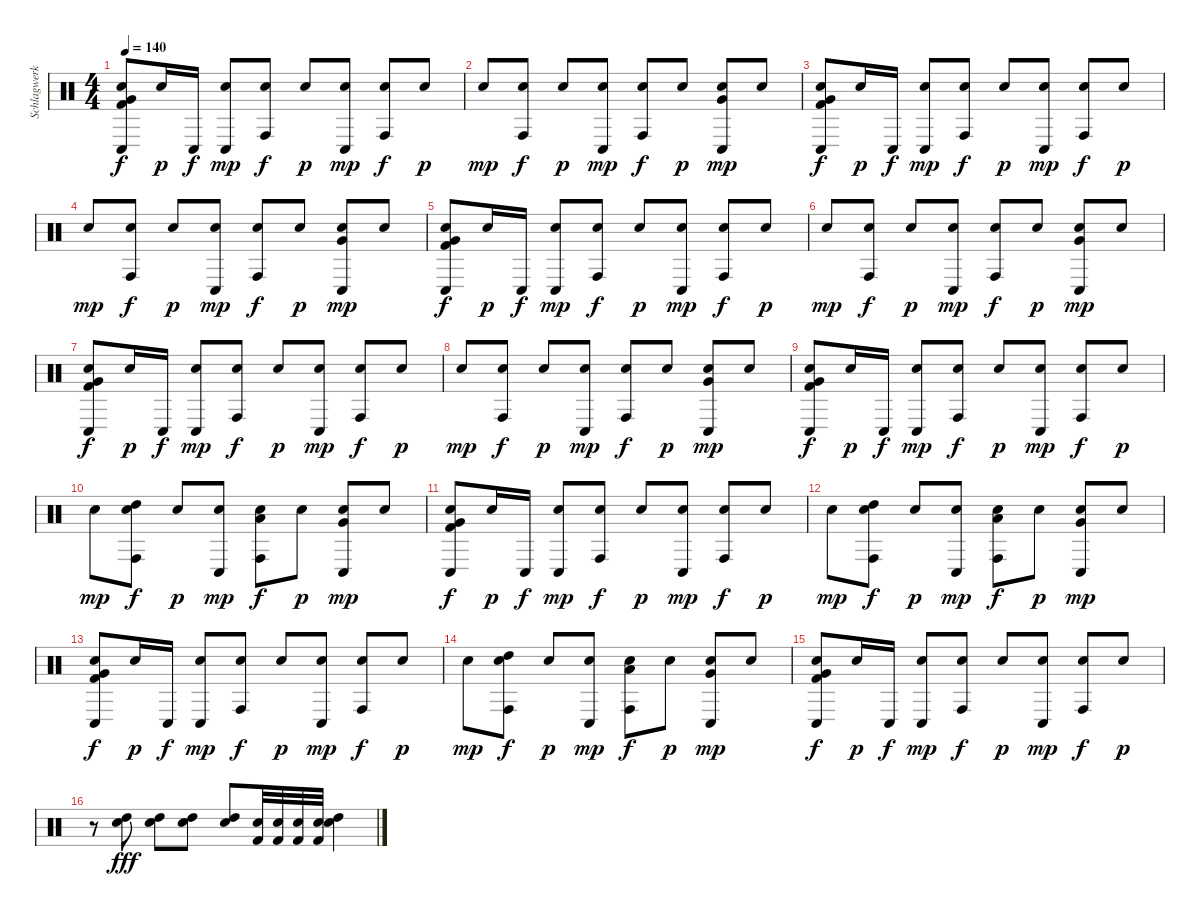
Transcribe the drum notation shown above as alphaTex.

\track ("Schlagwerk" "Schlagwerk") {instrument percussion}
\staff {score}
\articulation defaults
\ts (4 4)
\tempo 140
\clef neutral
\ks c
("Snare (hit) 2" "Very Low Tom (hit)" "Conga low (hit)" "Kick (hit) 2").8{dy f} "Snare (hit) 2".16{dy p} "Conga low (hit)".16{dy f} ("Snare (hit) 2" "Conga low (hit)").8{dy mp} ("Snare (hit) 2" "Conga high (hit)").8{dy f} "Snare (hit) 2".8{dy p} ("Snare (hit) 2" "Conga low (hit)").8{dy mp} ("Snare (hit) 2" "Conga high (hit)").8{dy f} "Snare (hit) 2".8{dy p} |
"Snare (hit) 2".8{dy mp} ("Snare (hit) 2" "Conga high (hit)").8{dy f} "Snare (hit) 2".8{dy p} ("Snare (hit) 2" "Conga low (hit)").8{dy mp} ("Snare (hit) 2" "Conga high (hit)").8{dy f} "Snare (hit) 2".8{dy p} ("Snare (hit) 2" "Very Low Tom (hit)" "Conga low (hit)").8{dy mp} "Snare (hit) 2".8 |
("Snare (hit) 2" "Very Low Tom (hit)" "Conga low (hit)" "Kick (hit) 2").8{dy f} "Snare (hit) 2".16{dy p} "Conga low (hit)".16{dy f} ("Snare (hit) 2" "Conga low (hit)").8{dy mp} ("Snare (hit) 2" "Conga high (hit)").8{dy f} "Snare (hit) 2".8{dy p} ("Snare (hit) 2" "Conga low (hit)").8{dy mp} ("Snare (hit) 2" "Conga high (hit)").8{dy f} "Snare (hit) 2".8{dy p} |
"Snare (hit) 2".8{dy mp} ("Snare (hit) 2" "Conga high (hit)").8{dy f} "Snare (hit) 2".8{dy p} ("Snare (hit) 2" "Conga low (hit)").8{dy mp} ("Snare (hit) 2" "Conga high (hit)").8{dy f} "Snare (hit) 2".8{dy p} ("Snare (hit) 2" "Very Low Tom (hit)" "Conga low (hit)").8{dy mp} "Snare (hit) 2".8 |
("Snare (hit) 2" "Very Low Tom (hit)" "Conga low (hit)" "Kick (hit) 2").8{dy f} "Snare (hit) 2".16{dy p} "Conga low (hit)".16{dy f} ("Snare (hit) 2" "Conga low (hit)").8{dy mp} ("Snare (hit) 2" "Conga high (hit)").8{dy f} "Snare (hit) 2".8{dy p} ("Snare (hit) 2" "Conga low (hit)").8{dy mp} ("Snare (hit) 2" "Conga high (hit)").8{dy f} "Snare (hit) 2".8{dy p} |
"Snare (hit) 2".8{dy mp} ("Snare (hit) 2" "Conga high (hit)").8{dy f} "Snare (hit) 2".8{dy p} ("Snare (hit) 2" "Conga low (hit)").8{dy mp} ("Snare (hit) 2" "Conga high (hit)").8{dy f} "Snare (hit) 2".8{dy p} ("Snare (hit) 2" "Very Low Tom (hit)" "Conga low (hit)").8{dy mp} "Snare (hit) 2".8 |
("Snare (hit) 2" "Very Low Tom (hit)" "Conga low (hit)" "Kick (hit) 2").8{dy f} "Snare (hit) 2".16{dy p} "Conga low (hit)".16{dy f} ("Snare (hit) 2" "Conga low (hit)").8{dy mp} ("Snare (hit) 2" "Conga high (hit)").8{dy f} "Snare (hit) 2".8{dy p} ("Snare (hit) 2" "Conga low (hit)").8{dy mp} ("Snare (hit) 2" "Conga high (hit)").8{dy f} "Snare (hit) 2".8{dy p} |
"Snare (hit) 2".8{dy mp} ("Snare (hit) 2" "Conga high (hit)").8{dy f} "Snare (hit) 2".8{dy p} ("Snare (hit) 2" "Conga low (hit)").8{dy mp} ("Snare (hit) 2" "Conga high (hit)").8{dy f} "Snare (hit) 2".8{dy p} ("Snare (hit) 2" "Very Low Tom (hit)" "Conga low (hit)").8{dy mp} "Snare (hit) 2".8 |
("Snare (hit) 2" "Very Low Tom (hit)" "Conga low (hit)" "Kick (hit) 2").8{dy f} "Snare (hit) 2".16{dy p} "Conga low (hit)".16{dy f} ("Snare (hit) 2" "Conga low (hit)").8{dy mp} ("Snare (hit) 2" "Conga high (hit)").8{dy f} "Snare (hit) 2".8{dy p} ("Snare (hit) 2" "Conga low (hit)").8{dy mp} ("Snare (hit) 2" "Conga high (hit)").8{dy f} "Snare (hit) 2".8{dy p} |
"Snare (hit) 2".8{dy mp} ("Snare (hit) 2" "High Tom (hit)" "Conga high (hit)").8{dy f} "Snare (hit) 2".8{dy p} ("Snare (hit) 2" "Conga low (hit)").8{dy mp} ("Snare (hit) 2" "Low Tom (hit)" "Conga high (hit)").8{dy f} "Snare (hit) 2".8{dy p} ("Snare (hit) 2" "Very Low Tom (hit)" "Conga low (hit)").8{dy mp} "Snare (hit) 2".8 |
("Snare (hit) 2" "Very Low Tom (hit)" "Conga low (hit)" "Kick (hit) 2").8{dy f} "Snare (hit) 2".16{dy p} "Conga low (hit)".16{dy f} ("Snare (hit) 2" "Conga low (hit)").8{dy mp} ("Snare (hit) 2" "Conga high (hit)").8{dy f} "Snare (hit) 2".8{dy p} ("Snare (hit) 2" "Conga low (hit)").8{dy mp} ("Snare (hit) 2" "Conga high (hit)").8{dy f} "Snare (hit) 2".8{dy p} |
"Snare (hit) 2".8{dy mp} ("Snare (hit) 2" "High Tom (hit)" "Conga high (hit)").8{dy f} "Snare (hit) 2".8{dy p} ("Snare (hit) 2" "Conga low (hit)").8{dy mp} ("Snare (hit) 2" "Low Tom (hit)" "Conga high (hit)").8{dy f} "Snare (hit) 2".8{dy p} ("Snare (hit) 2" "Very Low Tom (hit)" "Conga low (hit)").8{dy mp} "Snare (hit) 2".8 |
("Snare (hit) 2" "Very Low Tom (hit)" "Conga low (hit)" "Kick (hit) 2").8{dy f} "Snare (hit) 2".16{dy p} "Conga low (hit)".16{dy f} ("Snare (hit) 2" "Conga low (hit)").8{dy mp} ("Snare (hit) 2" "Conga high (hit)").8{dy f} "Snare (hit) 2".8{dy p} ("Snare (hit) 2" "Conga low (hit)").8{dy mp} ("Snare (hit) 2" "Conga high (hit)").8{dy f} "Snare (hit) 2".8{dy p} |
"Snare (hit) 2".8{dy mp} ("Snare (hit) 2" "High Tom (hit)" "Conga high (hit)").8{dy f} "Snare (hit) 2".8{dy p} ("Snare (hit) 2" "Conga low (hit)").8{dy mp} ("Snare (hit) 2" "Low Tom (hit)" "Conga high (hit)").8{dy f} "Snare (hit) 2".8{dy p} ("Snare (hit) 2" "Very Low Tom (hit)" "Conga low (hit)").8{dy mp} "Snare (hit) 2".8 |
("Snare (hit) 2" "Very Low Tom (hit)" "Conga low (hit)" "Kick (hit) 2").8{dy f} "Snare (hit) 2".16{dy p} "Conga low (hit)".16{dy f} ("Snare (hit) 2" "Conga low (hit)").8{dy mp} ("Snare (hit) 2" "Conga high (hit)").8{dy f} "Snare (hit) 2".8{dy p} ("Snare (hit) 2" "Conga low (hit)").8{dy mp} ("Snare (hit) 2" "Conga high (hit)").8{dy f} "Snare (hit) 2".8{dy p} |
r.8 ("Snare (hit) 2" "High Tom (hit)").8{dy fff} ("Snare (hit) 2" "High Tom (hit)").8 ("Snare (hit) 2" "High Tom (hit)").8 ("Snare (hit) 2" "High Tom (hit)").8 ("Snare (hit) 2" "Kick (hit) 2").32 ("Snare (hit) 2" "Kick (hit) 2").32 ("Snare (hit) 2" "Kick (hit) 2").32 ("Snare (hit) 2" "Kick (hit) 2").32 ("Snare (hit) 2" "High Tom (hit)").4
